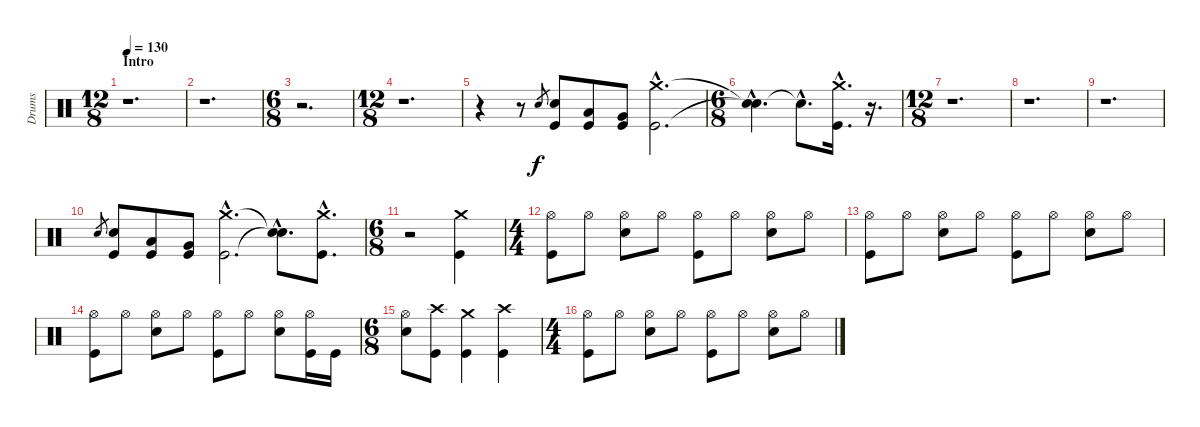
\track ("Drums" "Drums") {instrument percussion}
\staff {score}
\articulation defaults
\ts (12 8)
\section ("" "Intro")
\tempo 130
\clef neutral
\ks c
r.1{d dy f} |
r.1{d} |
\ts (6 8)
r.2{d} |
\ts (12 8)
r.1{d} |
r.4 r.8 "Snare (hit) 2".8{gr} ("Snare (hit) 2" "Kick (hit)").8 ("Low Tom (hit)" "Kick (hit)").8 ("Very Low Tom (hit)" "Kick (hit)").8 ("Crash medium (hit)"{hac} "Kick (hit)"{hac}).2{d} |
\ts (6 8)
("Snare (hit)"{hac t} "Snare (hit)"{hac t}).4{d} "Snare (hit)"{hac t}.8{d} ("Crash medium (hit)"{hac} "Kick (hit)"{hac}).16{d} r.16{d} |
\ts (12 8)
r.1{d} |
r.1{d} |
r.1{d} |
"Snare (hit) 2".8{gr} ("Snare (hit) 2" "Kick (hit)").8 ("Low Tom (hit)" "Kick (hit)").8 ("Very Low Tom (hit)" "Kick (hit)").8 ("Crash medium (hit)"{hac} "Kick (hit)"{hac}).2{d} ("Snare (hit)"{hac t} "Snare (hit)"{hac t}).8{d} ("Crash medium (hit)"{hac} "Kick (hit)"{hac}).8{d} |
\ts (6 8)
r.2 ("Crash medium (hit)" "Kick (hit)").4 |
\ts (4 4)
("Hi-Hat (open)" "Kick (hit)").8 "Hi-Hat (open)".8 ("Hi-Hat (open)" "Electric Snare (hit)").8 "Hi-Hat (open)".8 ("Hi-Hat (open)" "Kick (hit)").8 "Hi-Hat (open)".8 ("Hi-Hat (open)" "Electric Snare (hit)").8 "Hi-Hat (open)".8 |
("Hi-Hat (open)" "Kick (hit)").8 "Hi-Hat (open)".8 ("Hi-Hat (open)" "Electric Snare (hit)").8 "Hi-Hat (open)".8 ("Hi-Hat (open)" "Kick (hit)").8 "Hi-Hat (open)".8 ("Hi-Hat (open)" "Electric Snare (hit)").8 "Hi-Hat (open)".8 |
("Hi-Hat (open)" "Kick (hit)").8 "Hi-Hat (open)".8 ("Hi-Hat (open)" "Electric Snare (hit)").8 "Hi-Hat (open)".8 ("Hi-Hat (open)" "Kick (hit)").8 "Hi-Hat (open)".8 ("Hi-Hat (open)" "Electric Snare (hit)").8 ("Hi-Hat (open)" "Kick (hit)").16 "Kick (hit)".16 |
\ts (6 8)
("Hi-Hat (open)" "Electric Snare (hit)").8 ("Crash high (hit)" "Kick (hit)").8 ("Crash medium (hit)" "Kick (hit)").4 ("Crash high (hit)" "Kick (hit)").4 |
\ts (4 4)
("Hi-Hat (open)" "Kick (hit)").8 "Hi-Hat (open)".8 ("Hi-Hat (open)" "Electric Snare (hit)").8 "Hi-Hat (open)".8 ("Hi-Hat (open)" "Kick (hit)").8 "Hi-Hat (open)".8 ("Hi-Hat (open)" "Electric Snare (hit)").8 "Hi-Hat (open)".8
